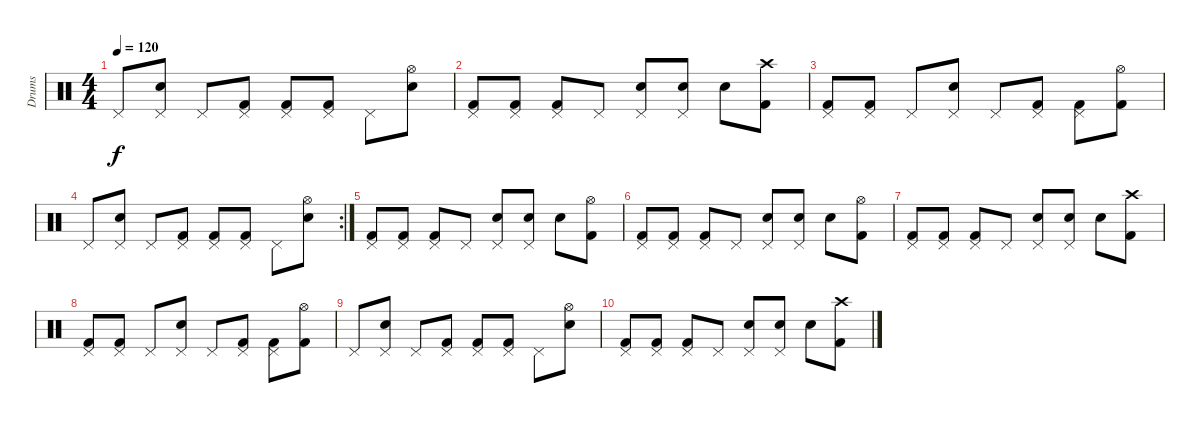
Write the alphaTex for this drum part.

\track ("Drums" "Drums") {instrument percussion}
\staff {score}
\articulation defaults
\ts (4 4)
\tempo 120
\clef neutral
\ks c "Pedal Hi-Hat (hit)".8{dy f}
("Pedal Hi-Hat (hit)" "Snare (hit) 2").8 "Pedal Hi-Hat (hit)".8 ("Pedal Hi-Hat (hit)" "Kick (hit) 2").8 ("Pedal Hi-Hat (hit)" "Kick (hit) 2").8 ("Pedal Hi-Hat (hit)" "Kick (hit) 2").8 "Pedal Hi-Hat (hit)".8 ("Hi-Hat (open)" "Snare (hit) 2").8 |
("Pedal Hi-Hat (hit)" "Kick (hit) 2").8 ("Pedal Hi-Hat (hit)" "Kick (hit) 2").8 ("Pedal Hi-Hat (hit)" "Kick (hit) 2").8 "Pedal Hi-Hat (hit)".8 ("Pedal Hi-Hat (hit)" "Snare (hit) 2").8 ("Pedal Hi-Hat (hit)" "Snare (hit) 2").8 "Snare (hit) 2".8 ("Crash high (hit)" "Kick (hit) 2").8 |
("Pedal Hi-Hat (hit)" "Kick (hit) 2").8 ("Pedal Hi-Hat (hit)" "Kick (hit) 2").8 "Pedal Hi-Hat (hit)".8 ("Pedal Hi-Hat (hit)" "Snare (hit) 2").8 "Pedal Hi-Hat (hit)".8 ("Pedal Hi-Hat (hit)" "Kick (hit) 2").8 ("Pedal Hi-Hat (hit)" "Kick (hit) 2").8 ("Hi-Hat (open)" "Kick (hit) 2").8 |
\rc 2 "Pedal Hi-Hat (hit)".8
("Pedal Hi-Hat (hit)" "Snare (hit) 2").8 "Pedal Hi-Hat (hit)".8 ("Pedal Hi-Hat (hit)" "Kick (hit) 2").8 ("Pedal Hi-Hat (hit)" "Kick (hit) 2").8 ("Pedal Hi-Hat (hit)" "Kick (hit) 2").8 "Pedal Hi-Hat (hit)".8 ("Hi-Hat (open)" "Snare (hit) 2").8 |
("Pedal Hi-Hat (hit)" "Kick (hit) 2").8 ("Pedal Hi-Hat (hit)" "Kick (hit) 2").8 ("Pedal Hi-Hat (hit)" "Kick (hit) 2").8 "Pedal Hi-Hat (hit)".8 ("Pedal Hi-Hat (hit)" "Snare (hit) 2").8 ("Pedal Hi-Hat (hit)" "Snare (hit) 2").8 "Snare (hit) 2".8 ("Hi-Hat (open)" "Kick (hit) 2").8 |
("Pedal Hi-Hat (hit)" "Kick (hit) 2").8 ("Pedal Hi-Hat (hit)" "Kick (hit) 2").8 ("Pedal Hi-Hat (hit)" "Kick (hit) 2").8 "Pedal Hi-Hat (hit)".8 ("Pedal Hi-Hat (hit)" "Snare (hit) 2").8 ("Pedal Hi-Hat (hit)" "Snare (hit) 2").8 "Snare (hit) 2".8 ("Hi-Hat (open)" "Kick (hit) 2").8 |
("Pedal Hi-Hat (hit)" "Kick (hit) 2").8 ("Pedal Hi-Hat (hit)" "Kick (hit) 2").8 ("Pedal Hi-Hat (hit)" "Kick (hit) 2").8 "Pedal Hi-Hat (hit)".8 ("Pedal Hi-Hat (hit)" "Snare (hit) 2").8 ("Pedal Hi-Hat (hit)" "Snare (hit) 2").8 "Snare (hit) 2".8 ("Crash high (hit)" "Kick (hit) 2").8 |
("Pedal Hi-Hat (hit)" "Kick (hit) 2").8 ("Pedal Hi-Hat (hit)" "Kick (hit) 2").8 "Pedal Hi-Hat (hit)".8 ("Pedal Hi-Hat (hit)" "Snare (hit) 2").8 "Pedal Hi-Hat (hit)".8 ("Pedal Hi-Hat (hit)" "Kick (hit) 2").8 ("Pedal Hi-Hat (hit)" "Kick (hit) 2").8 ("Hi-Hat (open)" "Kick (hit) 2").8 |
"Pedal Hi-Hat (hit)".8 ("Pedal Hi-Hat (hit)" "Snare (hit) 2").8 "Pedal Hi-Hat (hit)".8 ("Pedal Hi-Hat (hit)" "Kick (hit) 2").8 ("Pedal Hi-Hat (hit)" "Kick (hit) 2").8 ("Pedal Hi-Hat (hit)" "Kick (hit) 2").8 "Pedal Hi-Hat (hit)".8 ("Hi-Hat (open)" "Snare (hit) 2").8 |
("Pedal Hi-Hat (hit)" "Kick (hit) 2").8 ("Pedal Hi-Hat (hit)" "Kick (hit) 2").8 ("Pedal Hi-Hat (hit)" "Kick (hit) 2").8 "Pedal Hi-Hat (hit)".8 ("Pedal Hi-Hat (hit)" "Snare (hit) 2").8 ("Pedal Hi-Hat (hit)" "Snare (hit) 2").8 "Snare (hit) 2".8 ("Crash high (hit)" "Kick (hit) 2").8
